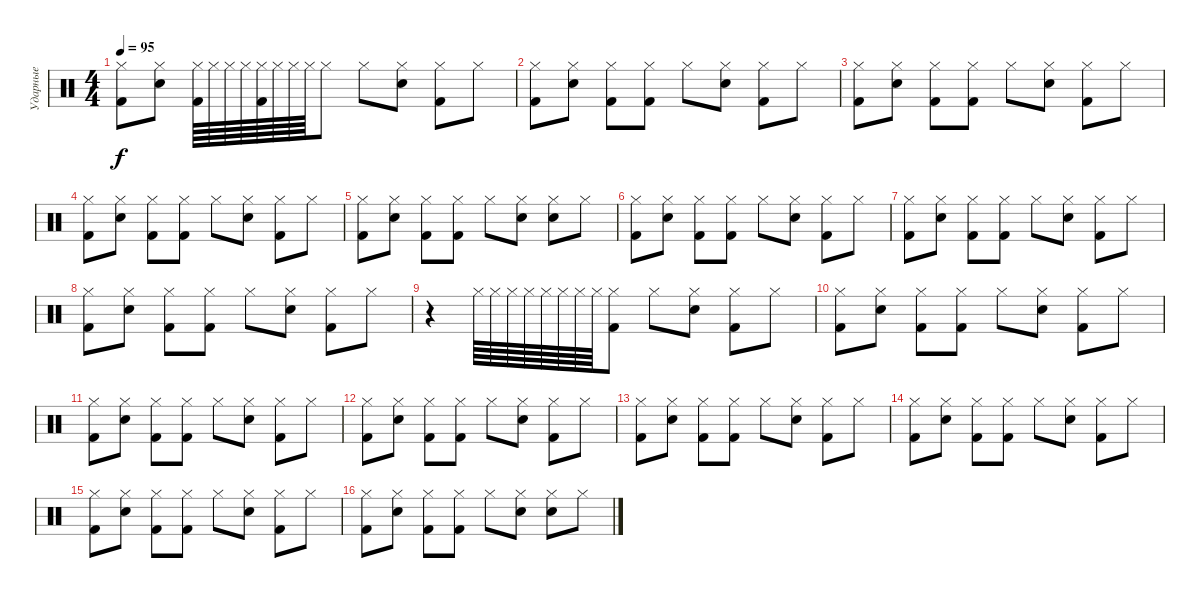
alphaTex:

\track ("Ударные" "Ударные") {instrument percussion}
\staff {score}
\articulation defaults
\ts (4 4)
\tempo 95
\clef neutral
\ks c
("Kick (hit) 2" "Hi-Hat (closed)").8{dy f} ("Electric Snare (hit)" "Hi-Hat (closed)").8 ("Kick (hit) 2" "Hi-Hat (closed)").64 "Hi-Hat (closed)".64 "Hi-Hat (closed)".64 "Hi-Hat (closed)".64 ("Kick (hit) 2" "Hi-Hat (closed)").64 "Hi-Hat (closed)".64 "Hi-Hat (closed)".64 "Hi-Hat (closed)".64 "Hi-Hat (closed)".8 "Hi-Hat (closed)".8 ("Electric Snare (hit)" "Hi-Hat (closed)").8 ("Kick (hit) 2" "Hi-Hat (closed)").8 "Hi-Hat (closed)".8 |
("Kick (hit) 2" "Hi-Hat (closed)").8 ("Electric Snare (hit)" "Hi-Hat (closed)").8 ("Kick (hit) 2" "Hi-Hat (closed)").8 ("Kick (hit) 2" "Hi-Hat (closed)").8 "Hi-Hat (closed)".8 ("Electric Snare (hit)" "Hi-Hat (closed)").8 ("Kick (hit) 2" "Hi-Hat (closed)").8 "Hi-Hat (closed)".8 |
("Kick (hit) 2" "Hi-Hat (closed)").8 ("Electric Snare (hit)" "Hi-Hat (closed)").8 ("Kick (hit) 2" "Hi-Hat (closed)").8 ("Kick (hit) 2" "Hi-Hat (closed)").8 "Hi-Hat (closed)".8 ("Electric Snare (hit)" "Hi-Hat (closed)").8 ("Kick (hit) 2" "Hi-Hat (closed)").8 "Hi-Hat (closed)".8 |
("Kick (hit) 2" "Hi-Hat (closed)").8 ("Electric Snare (hit)" "Hi-Hat (closed)").8 ("Kick (hit) 2" "Hi-Hat (closed)").8 ("Kick (hit) 2" "Hi-Hat (closed)").8 "Hi-Hat (closed)".8 ("Electric Snare (hit)" "Hi-Hat (closed)").8 ("Kick (hit) 2" "Hi-Hat (closed)").8 "Hi-Hat (closed)".8 |
("Kick (hit) 2" "Hi-Hat (closed)").8 ("Electric Snare (hit)" "Hi-Hat (closed)").8 ("Kick (hit) 2" "Hi-Hat (closed)").8 ("Kick (hit) 2" "Hi-Hat (closed)").8 "Hi-Hat (closed)".8 ("Electric Snare (hit)" "Hi-Hat (closed)").8 ("Electric Snare (hit)" "Hi-Hat (closed)").8 "Hi-Hat (closed)".8 |
("Kick (hit) 2" "Hi-Hat (closed)").8 ("Electric Snare (hit)" "Hi-Hat (closed)").8 ("Kick (hit) 2" "Hi-Hat (closed)").8 ("Kick (hit) 2" "Hi-Hat (closed)").8 "Hi-Hat (closed)".8 ("Electric Snare (hit)" "Hi-Hat (closed)").8 ("Kick (hit) 2" "Hi-Hat (closed)").8 "Hi-Hat (closed)".8 |
("Kick (hit) 2" "Hi-Hat (closed)").8 ("Electric Snare (hit)" "Hi-Hat (closed)").8 ("Kick (hit) 2" "Hi-Hat (closed)").8 ("Kick (hit) 2" "Hi-Hat (closed)").8 "Hi-Hat (closed)".8 ("Electric Snare (hit)" "Hi-Hat (closed)").8 ("Kick (hit) 2" "Hi-Hat (closed)").8 "Hi-Hat (closed)".8 |
("Kick (hit) 2" "Hi-Hat (closed)").8 ("Electric Snare (hit)" "Hi-Hat (closed)").8 ("Kick (hit) 2" "Hi-Hat (closed)").8 ("Kick (hit) 2" "Hi-Hat (closed)").8 "Hi-Hat (closed)".8 ("Electric Snare (hit)" "Hi-Hat (closed)").8 ("Kick (hit) 2" "Hi-Hat (closed)").8 "Hi-Hat (closed)".8 |
r.4 "Hi-Hat (closed)".64 "Hi-Hat (closed)".64 "Hi-Hat (closed)".64 "Hi-Hat (closed)".64 "Hi-Hat (closed)".64 "Hi-Hat (closed)".64 "Hi-Hat (closed)".64 "Hi-Hat (closed)".64 ("Kick (hit) 2" "Hi-Hat (closed)").8 "Hi-Hat (closed)".8 ("Electric Snare (hit)" "Hi-Hat (closed)").8 ("Kick (hit) 2" "Hi-Hat (closed)").8 "Hi-Hat (closed)".8 |
("Kick (hit) 2" "Hi-Hat (closed)").8 ("Electric Snare (hit)" "Hi-Hat (closed)").8 ("Kick (hit) 2" "Hi-Hat (closed)").8 ("Kick (hit) 2" "Hi-Hat (closed)").8 "Hi-Hat (closed)".8 ("Electric Snare (hit)" "Hi-Hat (closed)").8 ("Kick (hit) 2" "Hi-Hat (closed)").8 "Hi-Hat (closed)".8 |
("Kick (hit) 2" "Hi-Hat (closed)").8 ("Electric Snare (hit)" "Hi-Hat (closed)").8 ("Kick (hit) 2" "Hi-Hat (closed)").8 ("Kick (hit) 2" "Hi-Hat (closed)").8 "Hi-Hat (closed)".8 ("Electric Snare (hit)" "Hi-Hat (closed)").8 ("Kick (hit) 2" "Hi-Hat (closed)").8 "Hi-Hat (closed)".8 |
("Kick (hit) 2" "Hi-Hat (closed)").8 ("Electric Snare (hit)" "Hi-Hat (closed)").8 ("Kick (hit) 2" "Hi-Hat (closed)").8 ("Kick (hit) 2" "Hi-Hat (closed)").8 "Hi-Hat (closed)".8 ("Electric Snare (hit)" "Hi-Hat (closed)").8 ("Kick (hit) 2" "Hi-Hat (closed)").8 "Hi-Hat (closed)".8 |
("Kick (hit) 2" "Hi-Hat (closed)").8 ("Electric Snare (hit)" "Hi-Hat (closed)").8 ("Kick (hit) 2" "Hi-Hat (closed)").8 ("Kick (hit) 2" "Hi-Hat (closed)").8 "Hi-Hat (closed)".8 ("Electric Snare (hit)" "Hi-Hat (closed)").8 ("Kick (hit) 2" "Hi-Hat (closed)").8 "Hi-Hat (closed)".8 |
("Kick (hit) 2" "Hi-Hat (closed)").8 ("Electric Snare (hit)" "Hi-Hat (closed)").8 ("Kick (hit) 2" "Hi-Hat (closed)").8 ("Kick (hit) 2" "Hi-Hat (closed)").8 "Hi-Hat (closed)".8 ("Electric Snare (hit)" "Hi-Hat (closed)").8 ("Kick (hit) 2" "Hi-Hat (closed)").8 "Hi-Hat (closed)".8 |
("Kick (hit) 2" "Hi-Hat (closed)").8 ("Electric Snare (hit)" "Hi-Hat (closed)").8 ("Kick (hit) 2" "Hi-Hat (closed)").8 ("Kick (hit) 2" "Hi-Hat (closed)").8 "Hi-Hat (closed)".8 ("Electric Snare (hit)" "Hi-Hat (closed)").8 ("Kick (hit) 2" "Hi-Hat (closed)").8 "Hi-Hat (closed)".8 |
("Kick (hit) 2" "Hi-Hat (closed)").8 ("Electric Snare (hit)" "Hi-Hat (closed)").8 ("Kick (hit) 2" "Hi-Hat (closed)").8 ("Kick (hit) 2" "Hi-Hat (closed)").8 "Hi-Hat (closed)".8 ("Electric Snare (hit)" "Hi-Hat (closed)").8 ("Electric Snare (hit)" "Hi-Hat (closed)").8 "Hi-Hat (closed)".8
